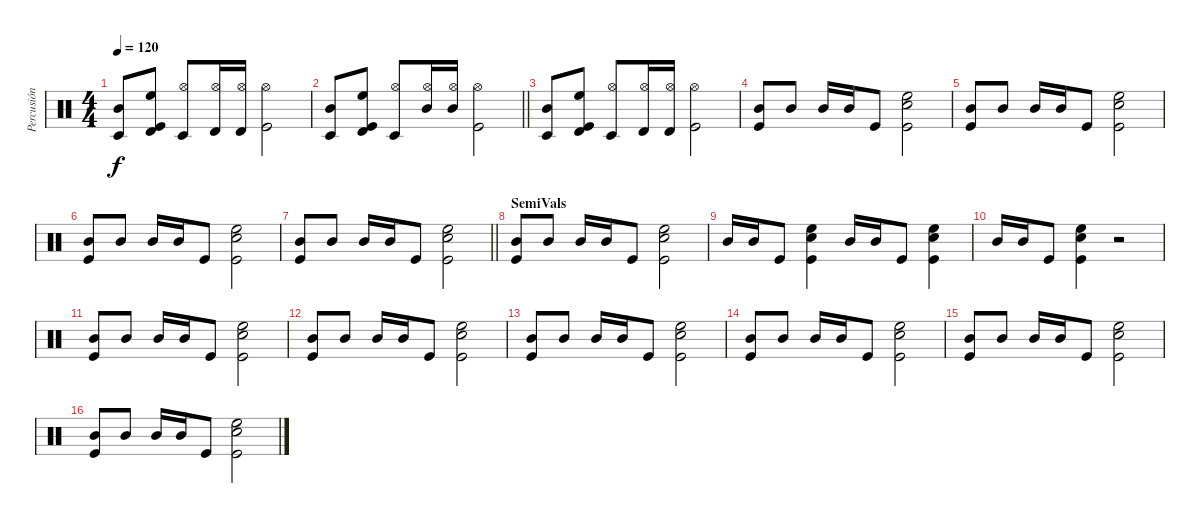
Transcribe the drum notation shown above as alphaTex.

\track ("Percusión" "Percusión") {instrument percussion}
\staff {score}
\articulation defaults
\ts (4 4)
\tempo 120
\clef neutral
\ks c
("Mid Tom (hit)" "Timbale low (hit)").8{dy f volume 11} ("High Floor Tom (hit)" "Timbale high (hit)" "Kick (hit)").8 ("Hi-Hat (open)" "Timbale low (hit)").8 ("Hi-Hat (open)" "Timbale high (hit)").16 ("Hi-Hat (open)" "Timbale high (hit)").16 ("Hi-Hat (open)" "Kick (hit)").2 |
\barLineRight lightlight
("Mid Tom (hit)" "Timbale low (hit)").8 ("High Floor Tom (hit)" "Timbale high (hit)" "Kick (hit)").8 ("Hi-Hat (open)" "Timbale low (hit)").8 ("Hi-Hat (open)" "Mid Tom (hit)").16 ("Hi-Hat (open)" "Mid Tom (hit)").16 ("Hi-Hat (open)" "Kick (hit)").2 |
\section ("" "")
("Mid Tom (hit)" "Timbale low (hit)").8{volume 11} ("High Floor Tom (hit)" "Timbale high (hit)" "Kick (hit)").8 ("Hi-Hat (open)" "Timbale low (hit)").8 ("Hi-Hat (open)" "Timbale high (hit)").16 ("Hi-Hat (open)" "Timbale high (hit)").16 ("Hi-Hat (open)" "Kick (hit)").2 |
("Mid Tom (hit)" "Kick (hit)").8{volume 9} "Mid Tom (hit)".8 "Mid Tom (hit)".16 "Mid Tom (hit)".16 "Kick (hit)".8 ("High Floor Tom (hit)" "Snare (hit) 2" "Kick (hit)").2 |
("Mid Tom (hit)" "Kick (hit)").8 "Mid Tom (hit)".8 "Mid Tom (hit)".16 "Mid Tom (hit)".16 "Kick (hit)".8 ("High Floor Tom (hit)" "Snare (hit) 2" "Kick (hit)").2 |
("Mid Tom (hit)" "Kick (hit)").8 "Mid Tom (hit)".8 "Mid Tom (hit)".16 "Mid Tom (hit)".16 "Kick (hit)".8 ("High Floor Tom (hit)" "Snare (hit) 2" "Kick (hit)").2 |
\barLineRight lightlight
("Mid Tom (hit)" "Kick (hit)").8 "Mid Tom (hit)".8 "Mid Tom (hit)".16 "Mid Tom (hit)".16 "Kick (hit)".8 ("High Floor Tom (hit)" "Snare (hit) 2" "Kick (hit)").2 |
\section ("" "SemiVals")
("Mid Tom (hit)" "Kick (hit)").8 "Mid Tom (hit)".8 "Mid Tom (hit)".16 "Mid Tom (hit)".16 "Kick (hit)".8 ("High Floor Tom (hit)" "Snare (hit) 2" "Kick (hit)").2 |
"Mid Tom (hit)".16 "Mid Tom (hit)".16 "Kick (hit)".8 ("High Floor Tom (hit)" "Snare (hit) 2" "Kick (hit)").4 "Mid Tom (hit)".16 "Mid Tom (hit)".16 "Kick (hit)".8 ("High Floor Tom (hit)" "Snare (hit) 2" "Kick (hit)").4 |
"Mid Tom (hit)".16 "Mid Tom (hit)".16 "Kick (hit)".8 ("High Floor Tom (hit)" "Snare (hit) 2" "Kick (hit)").4 r.2 |
("Mid Tom (hit)" "Kick (hit)").8 "Mid Tom (hit)".8 "Mid Tom (hit)".16 "Mid Tom (hit)".16 "Kick (hit)".8 ("High Floor Tom (hit)" "Snare (hit) 2" "Kick (hit)").2 |
("Mid Tom (hit)" "Kick (hit)").8 "Mid Tom (hit)".8 "Mid Tom (hit)".16 "Mid Tom (hit)".16 "Kick (hit)".8 ("High Floor Tom (hit)" "Snare (hit) 2" "Kick (hit)").2 |
("Mid Tom (hit)" "Kick (hit)").8 "Mid Tom (hit)".8 "Mid Tom (hit)".16 "Mid Tom (hit)".16 "Kick (hit)".8 ("High Floor Tom (hit)" "Snare (hit) 2" "Kick (hit)").2 |
("Mid Tom (hit)" "Kick (hit)").8 "Mid Tom (hit)".8 "Mid Tom (hit)".16 "Mid Tom (hit)".16 "Kick (hit)".8 ("High Floor Tom (hit)" "Snare (hit) 2" "Kick (hit)").2 |
("Mid Tom (hit)" "Kick (hit)").8 "Mid Tom (hit)".8 "Mid Tom (hit)".16 "Mid Tom (hit)".16 "Kick (hit)".8 ("High Floor Tom (hit)" "Snare (hit) 2" "Kick (hit)").2 |
("Mid Tom (hit)" "Kick (hit)").8 "Mid Tom (hit)".8 "Mid Tom (hit)".16 "Mid Tom (hit)".16 "Kick (hit)".8 ("High Floor Tom (hit)" "Snare (hit) 2" "Kick (hit)").2
